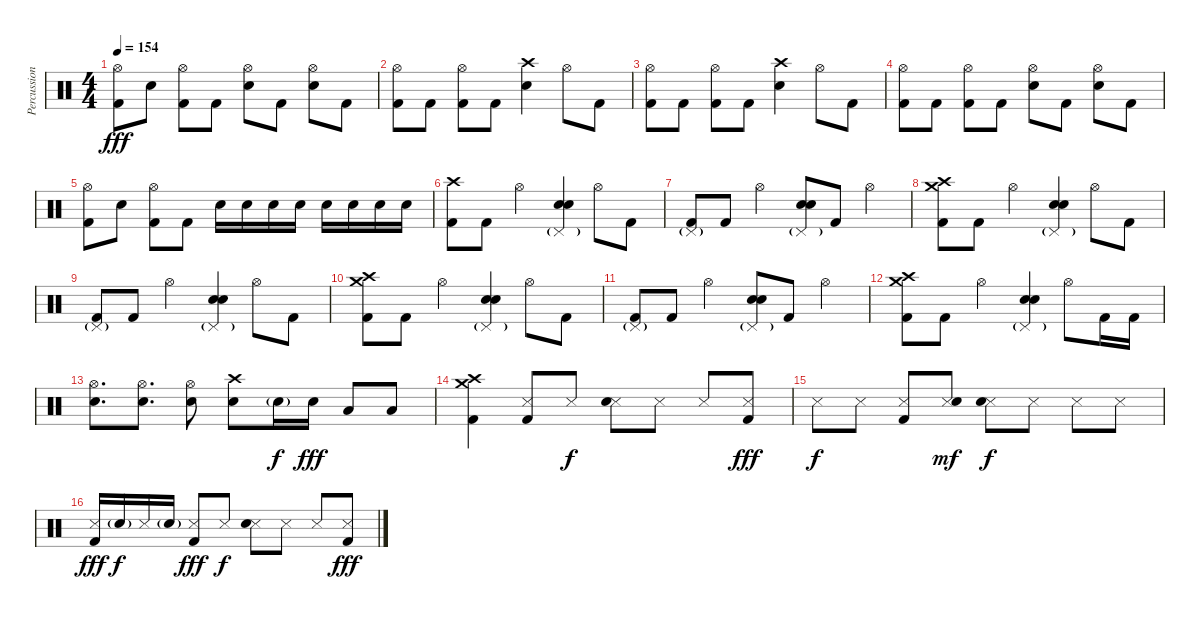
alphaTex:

\track ("Percussion" "Percussion") {instrument percussion}
\staff {score}
\articulation defaults
\ts (4 4)
\tempo 154
\clef neutral
\ks c
("Hi-Hat (open)" "Kick (hit) 2").8{dy fff} "Electric Snare (hit)".8 ("Hi-Hat (open)" "Kick (hit) 2").8 "Kick (hit) 2".8 ("Hi-Hat (open)" "Electric Snare (hit)").8 "Kick (hit) 2".8 ("Hi-Hat (open)" "Electric Snare (hit)").8 "Kick (hit) 2".8 |
("Hi-Hat (open)" "Kick (hit) 2").8 "Kick (hit) 2".8 ("Hi-Hat (open)" "Kick (hit) 2").8 "Kick (hit) 2".8 ("Crash high (hit)" "Electric Snare (hit)").4 "Hi-Hat (open)".8 "Kick (hit) 2".8 |
("Hi-Hat (open)" "Kick (hit) 2").8 "Kick (hit) 2".8 ("Hi-Hat (open)" "Kick (hit) 2").8 "Kick (hit) 2".8 ("Crash high (hit)" "Electric Snare (hit)").4 "Hi-Hat (open)".8 "Kick (hit) 2".8 |
("Hi-Hat (open)" "Kick (hit) 2").8 "Kick (hit) 2".8 ("Hi-Hat (open)" "Kick (hit) 2").8 "Kick (hit) 2".8 ("Hi-Hat (open)" "Electric Snare (hit)").8 "Kick (hit) 2".8 ("Hi-Hat (open)" "Electric Snare (hit)").8 "Kick (hit) 2".8 |
("Hi-Hat (open)" "Kick (hit) 2").8 "Electric Snare (hit)".8 ("Hi-Hat (open)" "Kick (hit) 2").8 "Kick (hit) 2".8 "Electric Snare (hit)".16 "Electric Snare (hit)".16 "Electric Snare (hit)".16 "Electric Snare (hit)".16 "Electric Snare (hit)".16 "Electric Snare (hit)".16 "Electric Snare (hit)".16 "Electric Snare (hit)".16 |
("Crash high (hit)" "Kick (hit) 2").8 "Kick (hit) 2".8 "Hi-Hat (open)".4 ("Pedal Hi-Hat (hit)"{g} "Electric Snare (hit)" "Electric Snare (hit)").4{bd 240} "Hi-Hat (open)".8 "Kick (hit) 2".8 |
("Pedal Hi-Hat (hit)"{g} "Kick (hit) 2").8 "Kick (hit) 2".8 "Hi-Hat (open)".4 ("Pedal Hi-Hat (hit)"{g} "Electric Snare (hit)" "Electric Snare (hit)").8{bd 240} "Kick (hit) 2".8 "Hi-Hat (open)".4 |
("Crash high (hit)" "Crash medium (hit)" "Kick (hit) 2").8 "Kick (hit) 2".8 "Hi-Hat (open)".4 ("Pedal Hi-Hat (hit)"{g} "Electric Snare (hit)" "Electric Snare (hit)").4{bd 240} "Hi-Hat (open)".8 "Kick (hit) 2".8 |
("Pedal Hi-Hat (hit)"{g} "Kick (hit) 2").8 "Kick (hit) 2".8 "Hi-Hat (open)".4 ("Pedal Hi-Hat (hit)"{g} "Electric Snare (hit)" "Electric Snare (hit)").4{bd 240} "Hi-Hat (open)".8 "Kick (hit) 2".8 |
("Crash high (hit)" "Crash medium (hit)" "Kick (hit) 2").8 "Kick (hit) 2".8 "Hi-Hat (open)".4 ("Pedal Hi-Hat (hit)"{g} "Electric Snare (hit)" "Electric Snare (hit)").4{bd 240} "Hi-Hat (open)".8 "Kick (hit) 2".8 |
("Pedal Hi-Hat (hit)"{g} "Kick (hit) 2").8 "Kick (hit) 2".8 "Hi-Hat (open)".4 ("Pedal Hi-Hat (hit)"{g} "Electric Snare (hit)" "Electric Snare (hit)").8{bd 240} "Kick (hit) 2".8 "Hi-Hat (open)".4 |
("Crash high (hit)" "Crash medium (hit)" "Kick (hit) 2").8 "Kick (hit) 2".8 "Hi-Hat (open)".4 ("Pedal Hi-Hat (hit)"{g} "Electric Snare (hit)" "Electric Snare (hit)").4{bd 240} "Hi-Hat (open)".8 "Kick (hit) 2".16 "Kick (hit) 2".16 |
("Hi-Hat (open)" "Electric Snare (hit)").8{d} ("Hi-Hat (open)" "Electric Snare (hit)").8{d} ("Hi-Hat (open)" "Electric Snare (hit)").8 ("Crash high (hit)" "Electric Snare (hit)").8 "Electric Snare (hit)"{g}.16{dy f} "Electric Snare (hit)".16{dy fff} "Low Tom (hit)".8 "Low Floor Tom (hit)".8 |
("Crash high (hit)" "Crash medium (hit)" "Kick (hit) 2").4 ("Snare (side stick) 3" "Kick (hit) 2").8 "Snare (side stick) 3".8{dy f} ("Snare (side stick) 3" "Electric Snare (hit)").8 "Snare (side stick) 3".8 "Snare (side stick) 3".8 ("Snare (side stick) 3" "Kick (hit) 2").8{dy fff} |
"Snare (side stick) 3".8{dy f} "Snare (side stick) 3".8 ("Snare (side stick) 3" "Kick (hit) 2").8 ("Snare (side stick) 3" "Snare (hit) 2").8{dy mf} ("Snare (side stick) 3" "Electric Snare (hit)").8{dy f} "Snare (side stick) 3".8 "Snare (side stick) 3".8 "Snare (side stick) 3".8 |
("Snare (side stick) 3" "Kick (hit) 2").16{dy fff} "Snare (hit) 2"{g}.16{dy f} "Snare (side stick) 3".16 "Snare (hit) 2"{g}.16 ("Snare (side stick) 3" "Kick (hit) 2").8{dy fff} "Snare (side stick) 3".8{dy f} ("Snare (side stick) 3" "Electric Snare (hit)").8 "Snare (side stick) 3".8 "Snare (side stick) 3".8 ("Snare (side stick) 3" "Kick (hit) 2").8{dy fff}
